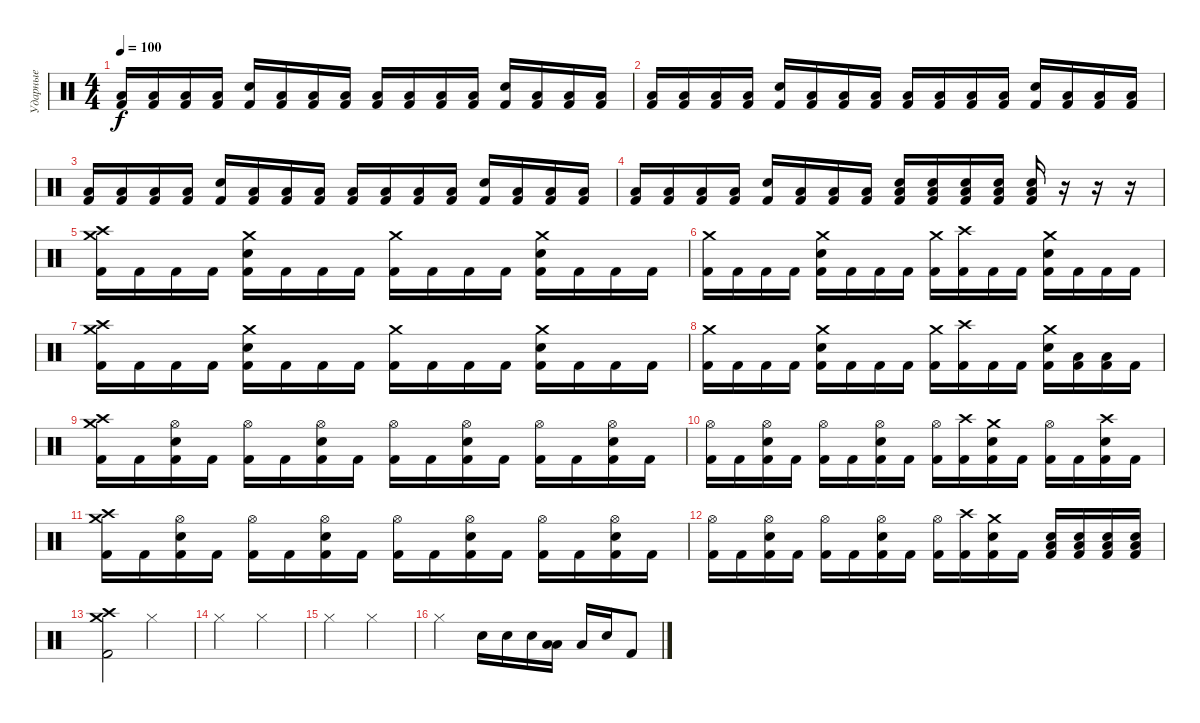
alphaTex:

\track ("Ударные" "Ударные") {instrument percussion}
\staff {score}
\articulation defaults
\ts (4 4)
\tempo 100
\clef neutral
\ks c
("Low Tom (hit)" "Kick (hit) 2").16{dy f} ("Low Floor Tom (hit)" "Kick (hit) 2").16 ("Low Tom (hit)" "Kick (hit) 2").16 ("Low Floor Tom (hit)" "Kick (hit) 2").16 ("Electric Snare (hit)" "Kick (hit) 2").16 ("Low Floor Tom (hit)" "Kick (hit) 2").16 ("Low Tom (hit)" "Kick (hit) 2").16 ("Low Floor Tom (hit)" "Kick (hit) 2").16 ("Low Tom (hit)" "Kick (hit) 2").16 ("Low Floor Tom (hit)" "Kick (hit) 2").16 ("Low Tom (hit)" "Kick (hit) 2").16 ("Low Floor Tom (hit)" "Kick (hit) 2").16 ("Electric Snare (hit)" "Kick (hit) 2").16 ("Low Floor Tom (hit)" "Kick (hit) 2").16 ("Low Tom (hit)" "Kick (hit) 2").16 ("Low Floor Tom (hit)" "Kick (hit) 2").16 |
("Low Tom (hit)" "Kick (hit) 2").16 ("Low Floor Tom (hit)" "Kick (hit) 2").16 ("Low Tom (hit)" "Kick (hit) 2").16 ("Low Floor Tom (hit)" "Kick (hit) 2").16 ("Electric Snare (hit)" "Kick (hit) 2").16 ("Low Floor Tom (hit)" "Kick (hit) 2").16 ("Low Tom (hit)" "Kick (hit) 2").16 ("Low Floor Tom (hit)" "Kick (hit) 2").16 ("Low Tom (hit)" "Kick (hit) 2").16 ("Low Floor Tom (hit)" "Kick (hit) 2").16 ("Low Tom (hit)" "Kick (hit) 2").16 ("Low Floor Tom (hit)" "Kick (hit) 2").16 ("Electric Snare (hit)" "Kick (hit) 2").16 ("Low Floor Tom (hit)" "Kick (hit) 2").16 ("Low Tom (hit)" "Kick (hit) 2").16 ("Low Floor Tom (hit)" "Kick (hit) 2").16 |
("Low Tom (hit)" "Kick (hit) 2").16 ("Low Floor Tom (hit)" "Kick (hit) 2").16 ("Low Tom (hit)" "Kick (hit) 2").16 ("Low Floor Tom (hit)" "Kick (hit) 2").16 ("Electric Snare (hit)" "Kick (hit) 2").16 ("Low Floor Tom (hit)" "Kick (hit) 2").16 ("Low Tom (hit)" "Kick (hit) 2").16 ("Low Floor Tom (hit)" "Kick (hit) 2").16 ("Low Tom (hit)" "Kick (hit) 2").16 ("Low Floor Tom (hit)" "Kick (hit) 2").16 ("Low Tom (hit)" "Kick (hit) 2").16 ("Low Floor Tom (hit)" "Kick (hit) 2").16 ("Electric Snare (hit)" "Kick (hit) 2").16 ("Low Floor Tom (hit)" "Kick (hit) 2").16 ("Low Tom (hit)" "Kick (hit) 2").16 ("Low Floor Tom (hit)" "Kick (hit) 2").16 |
("Low Tom (hit)" "Kick (hit) 2").16 ("Low Floor Tom (hit)" "Kick (hit) 2").16 ("Low Tom (hit)" "Kick (hit) 2").16 ("Low Floor Tom (hit)" "Kick (hit) 2").16 ("Electric Snare (hit)" "Kick (hit) 2").16 ("Low Floor Tom (hit)" "Kick (hit) 2").16 ("Low Tom (hit)" "Kick (hit) 2").16 ("Low Floor Tom (hit)" "Kick (hit) 2").16 ("Low Floor Tom (hit)" "Electric Snare (hit)" "Kick (hit) 2").16 ("Low Floor Tom (hit)" "Electric Snare (hit)" "Kick (hit) 2").16 ("Low Floor Tom (hit)" "Electric Snare (hit)" "Kick (hit) 2").16 ("Low Floor Tom (hit)" "Electric Snare (hit)" "Kick (hit) 2").16 ("Low Floor Tom (hit)" "Electric Snare (hit)" "Kick (hit) 2").16 r.16 r.16 r.16 |
("Crash medium (hit)" "Crash high (hit)" "Kick (hit) 2").16 "Kick (hit) 2".16 "Kick (hit) 2".16 "Kick (hit) 2".16 ("Crash medium (hit)" "Electric Snare (hit)" "Kick (hit) 2").16 "Kick (hit) 2".16 "Kick (hit) 2".16 "Kick (hit) 2".16 ("Crash medium (hit)" "Kick (hit) 2").16 "Kick (hit) 2".16 "Kick (hit) 2".16 "Kick (hit) 2".16 ("Crash medium (hit)" "Electric Snare (hit)" "Kick (hit) 2").16 "Kick (hit) 2".16 "Kick (hit) 2".16 "Kick (hit) 2".16 |
("Crash medium (hit)" "Kick (hit) 2").16 "Kick (hit) 2".16 "Kick (hit) 2".16 "Kick (hit) 2".16 ("Crash medium (hit)" "Electric Snare (hit)" "Kick (hit) 2").16 "Kick (hit) 2".16 "Kick (hit) 2".16 "Kick (hit) 2".16 ("Crash medium (hit)" "Kick (hit) 2").16 ("Crash high (hit)" "Kick (hit) 2").16 "Kick (hit) 2".16 "Kick (hit) 2".16 ("Crash medium (hit)" "Electric Snare (hit)" "Kick (hit) 2").16 "Kick (hit) 2".16 "Kick (hit) 2".16 "Kick (hit) 2".16 |
("Crash medium (hit)" "Crash high (hit)" "Kick (hit) 2").16 "Kick (hit) 2".16 "Kick (hit) 2".16 "Kick (hit) 2".16 ("Crash medium (hit)" "Electric Snare (hit)" "Kick (hit) 2").16 "Kick (hit) 2".16 "Kick (hit) 2".16 "Kick (hit) 2".16 ("Crash medium (hit)" "Kick (hit) 2").16 "Kick (hit) 2".16 "Kick (hit) 2".16 "Kick (hit) 2".16 ("Crash medium (hit)" "Electric Snare (hit)" "Kick (hit) 2").16 "Kick (hit) 2".16 "Kick (hit) 2".16 "Kick (hit) 2".16 |
("Crash medium (hit)" "Kick (hit) 2").16 "Kick (hit) 2".16 "Kick (hit) 2".16 "Kick (hit) 2".16 ("Crash medium (hit)" "Electric Snare (hit)" "Kick (hit) 2").16 "Kick (hit) 2".16 "Kick (hit) 2".16 "Kick (hit) 2".16 ("Crash medium (hit)" "Kick (hit) 2").16 ("Crash high (hit)" "Kick (hit) 2").16 "Kick (hit) 2".16 "Kick (hit) 2".16 ("Crash medium (hit)" "Electric Snare (hit)" "Kick (hit) 2").16 ("Low Tom (hit)" "Kick (hit) 2").16 ("Low Floor Tom (hit)" "Kick (hit) 2").16 "Kick (hit) 2".16 |
("Crash medium (hit)" "Crash high (hit)" "Kick (hit) 2").16 "Kick (hit) 2".16 ("Hi-Hat (open)" "Electric Snare (hit)" "Kick (hit) 2").16 "Kick (hit) 2".16 ("Hi-Hat (open)" "Kick (hit) 2").16 "Kick (hit) 2".16 ("Hi-Hat (open)" "Electric Snare (hit)" "Kick (hit) 2").16 "Kick (hit) 2".16 ("Hi-Hat (open)" "Kick (hit) 2").16 "Kick (hit) 2".16 ("Hi-Hat (open)" "Electric Snare (hit)" "Kick (hit) 2").16 "Kick (hit) 2".16 ("Hi-Hat (open)" "Kick (hit) 2").16 "Kick (hit) 2".16 ("Hi-Hat (open)" "Electric Snare (hit)" "Kick (hit) 2").16 "Kick (hit) 2".16 |
("Hi-Hat (open)" "Kick (hit) 2").16 "Kick (hit) 2".16 ("Hi-Hat (open)" "Electric Snare (hit)" "Kick (hit) 2").16 "Kick (hit) 2".16 ("Hi-Hat (open)" "Kick (hit) 2").16 "Kick (hit) 2".16 ("Hi-Hat (open)" "Electric Snare (hit)" "Kick (hit) 2").16 "Kick (hit) 2".16 ("Hi-Hat (open)" "Kick (hit) 2").16 ("Crash high (hit)" "Kick (hit) 2").16 ("Crash medium (hit)" "Electric Snare (hit)" "Kick (hit) 2").16 "Kick (hit) 2".16 ("Hi-Hat (open)" "Kick (hit) 2").16 "Kick (hit) 2".16 ("Crash high (hit)" "Electric Snare (hit)" "Kick (hit) 2").16 "Kick (hit) 2".16 |
("Crash medium (hit)" "Crash high (hit)" "Kick (hit) 2").16 "Kick (hit) 2".16 ("Hi-Hat (open)" "Electric Snare (hit)" "Kick (hit) 2").16 "Kick (hit) 2".16 ("Hi-Hat (open)" "Kick (hit) 2").16 "Kick (hit) 2".16 ("Hi-Hat (open)" "Electric Snare (hit)" "Kick (hit) 2").16 "Kick (hit) 2".16 ("Hi-Hat (open)" "Kick (hit) 2").16 "Kick (hit) 2".16 ("Hi-Hat (open)" "Electric Snare (hit)" "Kick (hit) 2").16 "Kick (hit) 2".16 ("Hi-Hat (open)" "Kick (hit) 2").16 "Kick (hit) 2".16 ("Hi-Hat (open)" "Electric Snare (hit)" "Kick (hit) 2").16 "Kick (hit) 2".16 |
("Hi-Hat (open)" "Kick (hit) 2").16 "Kick (hit) 2".16 ("Hi-Hat (open)" "Electric Snare (hit)" "Kick (hit) 2").16 "Kick (hit) 2".16 ("Hi-Hat (open)" "Kick (hit) 2").16 "Kick (hit) 2".16 ("Hi-Hat (open)" "Electric Snare (hit)" "Kick (hit) 2").16 "Kick (hit) 2".16 ("Hi-Hat (open)" "Kick (hit) 2").16 ("Crash high (hit)" "Kick (hit) 2").16 ("Crash medium (hit)" "Electric Snare (hit)" "Kick (hit) 2").16 "Kick (hit) 2".16 ("Low Floor Tom (hit)" "Electric Snare (hit)" "Kick (hit) 2").16 ("Low Floor Tom (hit)" "Electric Snare (hit)" "Kick (hit) 2").16 ("Low Floor Tom (hit)" "Electric Snare (hit)" "Kick (hit) 2").16 ("Low Floor Tom (hit)" "Electric Snare (hit)" "Kick (hit) 2").16 |
("Crash medium (hit)" "Crash high (hit)" "Kick (hit) 2").2 "Hi-Hat (closed)".2 |
"Hi-Hat (closed)".2 "Hi-Hat (closed)".2 |
"Hi-Hat (closed)".2 "Hi-Hat (closed)".2 |
"Hi-Hat (closed)".2 "Electric Snare (hit)".16 "Electric Snare (hit)".16 "Electric Snare (hit)".16 ("Low Tom (hit)" "Low Floor Tom (hit)").16{bu 480} "Low Floor Tom (hit)".16 "Electric Snare (hit)".16 "Kick (hit) 2".8
